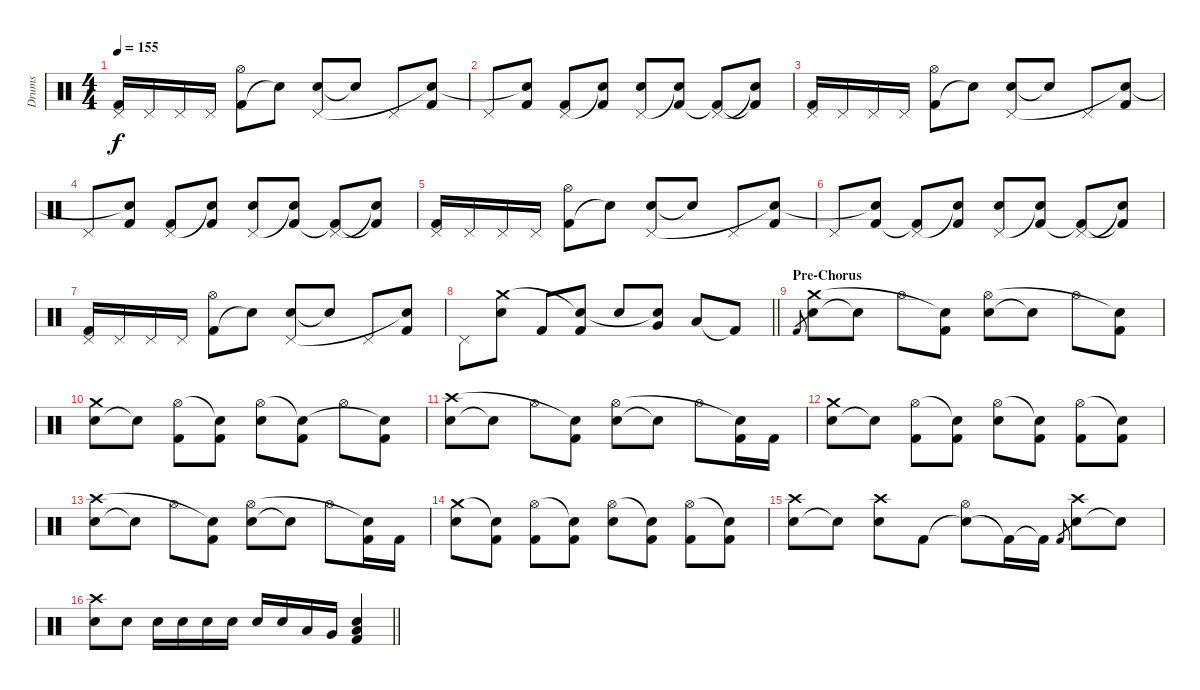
\track ("Drums" "Drums") {instrument percussion}
\staff {score}
\articulation defaults
\ts (4 4)
\tempo 155
\clef neutral
\ks c
("Kick (hit) 2" "Pedal Hi-Hat (hit)").16{dy f} "Pedal Hi-Hat (hit)".16 "Pedal Hi-Hat (hit)".16 "Pedal Hi-Hat (hit)".16 ("Kick (hit) 2" "Hi-Hat (open)").8 "Snare (hit)"{t}.8 ("Electric Snare (hit)" "Pedal Hi-Hat (hit)").8 "Snare (hit)"{t}.8 "Pedal Hi-Hat (hit)".8 ("Kick (hit) 2" "Snare (hit)"{t}).8 |
"Pedal Hi-Hat (hit)".8 ("Kick (hit) 2" "Snare (hit)"{t}).8 ("Kick (hit) 2" "Pedal Hi-Hat (hit)").8 ("Kick (hit) 2" "Snare (hit)"{t}).8 ("Electric Snare (hit)" "Pedal Hi-Hat (hit)").8 ("Kick (hit) 2" "Snare (hit)"{t}).8 ("Kick (hit) 2"{t} "Pedal Hi-Hat (hit)").8 ("Kick (hit) 2"{t} "Snare (hit)"{t}).8 |
("Kick (hit) 2" "Pedal Hi-Hat (hit)").16 "Pedal Hi-Hat (hit)".16 "Pedal Hi-Hat (hit)".16 "Pedal Hi-Hat (hit)".16 ("Kick (hit) 2" "Hi-Hat (open)").8 "Snare (hit)"{t}.8 ("Electric Snare (hit)" "Pedal Hi-Hat (hit)").8 "Snare (hit)"{t}.8 "Pedal Hi-Hat (hit)".8 ("Kick (hit) 2" "Snare (hit)"{t}).8 |
"Pedal Hi-Hat (hit)".8 ("Kick (hit) 2" "Snare (hit)"{t}).8 ("Kick (hit) 2" "Pedal Hi-Hat (hit)").8 ("Kick (hit) 2" "Snare (hit)"{t}).8 ("Electric Snare (hit)" "Pedal Hi-Hat (hit)").8 ("Kick (hit) 2" "Snare (hit)"{t}).8 ("Kick (hit) 2"{t} "Pedal Hi-Hat (hit)").8 ("Kick (hit) 2"{t} "Snare (hit)"{t}).8 |
("Kick (hit) 2" "Pedal Hi-Hat (hit)").16 "Pedal Hi-Hat (hit)".16 "Pedal Hi-Hat (hit)".16 "Pedal Hi-Hat (hit)".16 ("Kick (hit) 2" "Hi-Hat (open)").8 "Snare (hit)"{t}.8 ("Electric Snare (hit)" "Pedal Hi-Hat (hit)").8 "Snare (hit)"{t}.8 "Pedal Hi-Hat (hit)".8 ("Kick (hit) 2" "Snare (hit)"{t}).8 |
"Pedal Hi-Hat (hit)".8 ("Kick (hit) 2" "Snare (hit)"{t}).8 ("Kick (hit) 2"{t} "Pedal Hi-Hat (hit)").8 ("Kick (hit) 2" "Snare (hit)"{t}).8 ("Electric Snare (hit)" "Pedal Hi-Hat (hit)").8 ("Kick (hit) 2" "Snare (hit)"{t}).8 ("Kick (hit) 2"{t} "Pedal Hi-Hat (hit)").8 ("Kick (hit) 2"{t} "Snare (hit)"{t}).8 |
("Kick (hit) 2" "Pedal Hi-Hat (hit)").16 "Pedal Hi-Hat (hit)".16 "Pedal Hi-Hat (hit)".16 "Pedal Hi-Hat (hit)".16 ("Kick (hit) 2" "Hi-Hat (open)").8 "Snare (hit)"{t}.8 ("Electric Snare (hit)" "Pedal Hi-Hat (hit)").8 "Snare (hit)"{t}.8 "Pedal Hi-Hat (hit)".8 ("Kick (hit) 2" "Snare (hit)"{t}).8 |
\barLineRight lightlight "Pedal Hi-Hat (hit)".8
("Electric Snare (hit)" "Crash medium (hit)").8 "Kick (hit) 2".8 ("Kick (hit) 2" "Snare (hit)"{t}).8 "Electric Snare (hit)".8 ("Very Low Tom (hit)" "Snare (hit)"{t}).8 "Low Floor Tom (hit)".8 "Kick (hit) 2"{t}.8 |
\section ("" "Pre-Chorus")
"Kick (hit) 2".8{gr} ("Electric Snare (hit)" "Crash medium (hit)").8 "Snare (hit)"{t}.8 "Hi-Hat (open)".8 ("Kick (hit) 2" "Snare (hit)"{t}).8 ("Electric Snare (hit)" "Hi-Hat (open)").8 "Snare (hit)"{t}.8 "Hi-Hat (open)".8 ("Kick (hit) 2" "Snare (hit)"{t}).8 |
("Electric Snare (hit)" "Crash medium (hit)").8 "Snare (hit)"{t}.8 ("Kick (hit) 2" "Hi-Hat (open)").8 ("Kick (hit) 2" "Snare (hit)"{t}).8 ("Electric Snare (hit)" "Hi-Hat (open)").8 ("Kick (hit) 2" "Snare (hit)"{t}).8 "Hi-Hat (open)".8 ("Kick (hit) 2" "Snare (hit)"{t}).8 |
("Electric Snare (hit)" "Crash high (hit)").8 "Snare (hit)"{t}.8 "Hi-Hat (open)".8 ("Kick (hit) 2" "Snare (hit)"{t}).8 ("Electric Snare (hit)" "Hi-Hat (open)").8 "Snare (hit)"{t}.8 "Hi-Hat (open)".8 ("Kick (hit) 2" "Snare (hit)"{t}).16 "Kick (hit) 2".16 |
("Electric Snare (hit)" "Crash medium (hit)").8 "Snare (hit)"{t}.8 ("Kick (hit) 2" "Hi-Hat (open)").8 ("Kick (hit) 2" "Snare (hit)"{t}).8 ("Electric Snare (hit)" "Hi-Hat (open)").8 ("Kick (hit) 2" "Snare (hit)"{t}).8 ("Kick (hit) 2" "Hi-Hat (open)").8 ("Kick (hit) 2" "Snare (hit)"{t}).8 |
("Electric Snare (hit)" "Crash high (hit)").8 "Snare (hit)"{t}.8 "Hi-Hat (open)".8 ("Kick (hit) 2" "Snare (hit)"{t}).8 ("Electric Snare (hit)" "Hi-Hat (open)").8 "Snare (hit)"{t}.8 "Hi-Hat (open)".8 ("Kick (hit) 2" "Snare (hit)"{t}).16 "Kick (hit) 2".16 |
("Electric Snare (hit)" "Crash medium (hit)").8 ("Kick (hit) 2" "Snare (hit)"{t}).8 ("Kick (hit) 2" "Hi-Hat (open)").8 ("Kick (hit) 2" "Snare (hit)"{t}).8 ("Electric Snare (hit)" "Hi-Hat (open)").8 ("Kick (hit) 2" "Snare (hit)"{t}).8 ("Kick (hit) 2" "Hi-Hat (open)").8 ("Kick (hit) 2" "Snare (hit)"{t}).8 |
("Electric Snare (hit)" "Crash high (hit)").8 "Snare (hit)"{t}.8 ("Electric Snare (hit)" "Crash high (hit)").8 "Kick (hit) 2".8 ("Snare (hit)"{t} "Hi-Hat (open)").8 "Kick (hit) 2"{t}.16 "Kick (hit) 2"{t}.16 "Kick (hit) 2".8{gr} ("Electric Snare (hit)" "Crash high (hit)").8 "Snare (hit)"{t}.8 |
\barLineRight lightlight
("Electric Snare (hit)" "Crash high (hit)").8 "Electric Snare (hit)".8 "Electric Snare (hit)".16 "Electric Snare (hit)".16 "Electric Snare (hit)".16 "Electric Snare (hit)".16 "Electric Snare (hit)".16 "Electric Snare (hit)".16 "Low Tom (hit)".16 "Very Low Tom (hit)".16 ("Electric Snare (hit)" "Low Floor Tom (hit)" "Kick (hit) 2").4
